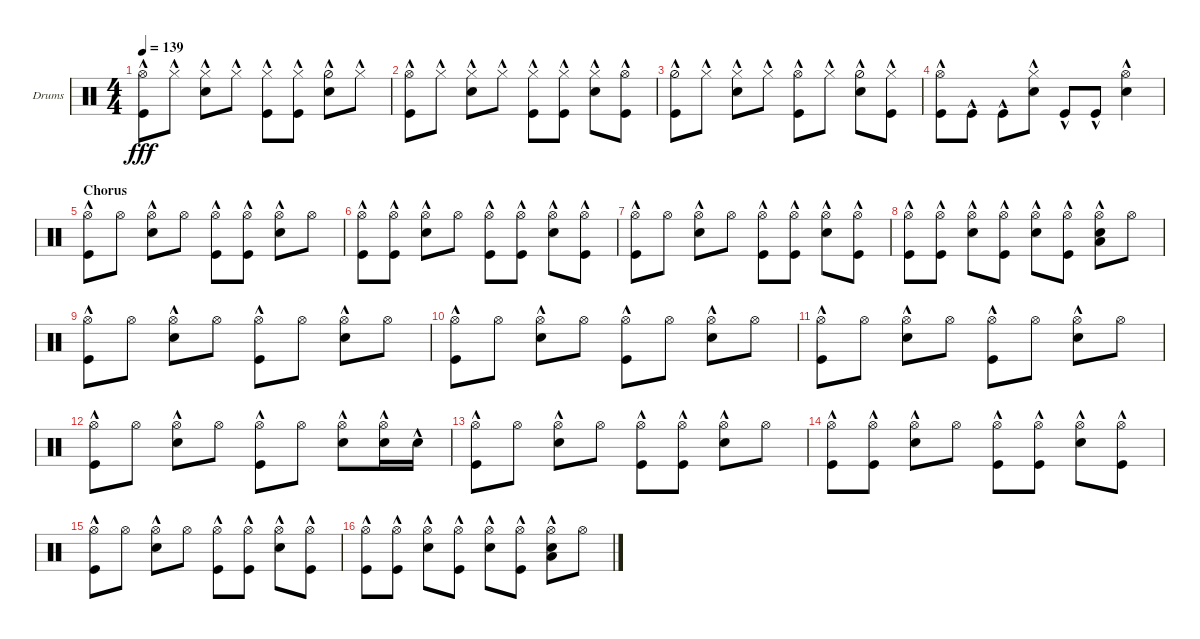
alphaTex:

\bracketExtendMode groupsimilarinstruments
\firstSystemTrackNameOrientation horizontal
\otherSystemsTrackNameOrientation horizontal
\track ("Drumkit" "Drums") {instrument percussion}
\staff {score}
\articulation defaults
\ts (4 4)
\tempo 139
\clef neutral
\ks c
("Kick (hit)"{hac} "Hi-Hat (open)"{hac}).8{dy fff} "Hi-Hat (closed)"{hac}.8 ("Hi-Hat (closed)"{hac} "Snare (hit) 2"{hac}).8 "Hi-Hat (closed)"{hac}.8 ("Hi-Hat (closed)"{hac} "Kick (hit)"{hac}).8 ("Hi-Hat (closed)"{hac} "Kick (hit)"{hac}).8 ("Hi-Hat (half)"{hac} "Snare (hit) 2"{hac}).8 "Hi-Hat (closed)"{hac}.8 |
("Kick (hit)"{hac} "Hi-Hat (open)"{hac}).8 "Hi-Hat (closed)"{hac}.8 ("Hi-Hat (closed)"{hac} "Snare (hit) 2"{hac}).8 "Hi-Hat (closed)"{hac}.8 ("Hi-Hat (closed)"{hac} "Kick (hit)"{hac}).8 ("Hi-Hat (closed)"{hac} "Kick (hit)"{hac}).8 ("Hi-Hat (closed)"{hac} "Snare (hit) 2"{hac}).8 ("Hi-Hat (open)"{hac} "Kick (hit)"{hac}).8 |
("Kick (hit)"{hac} "Hi-Hat (half)"{hac}).8 "Hi-Hat (closed)"{hac}.8 ("Hi-Hat (closed)"{hac} "Snare (hit) 2"{hac}).8 "Hi-Hat (closed)"{hac}.8 ("Hi-Hat (open)"{hac} "Kick (hit)"{hac}).8 "Hi-Hat (closed)"{hac}.8 ("Hi-Hat (half)"{hac} "Snare (hit) 2"{hac}).8 ("Hi-Hat (closed)"{hac} "Kick (hit)"{hac}).8 |
("Kick (hit)"{hac} "Hi-Hat (open)"{hac}).8 "Kick (hit)"{hac}.8 "Kick (hit)"{hac}.8 ("Snare (hit) 2"{hac} "Hi-Hat (closed)"{hac}).8 "Kick (hit)"{hac}.8 "Kick (hit)"{hac}.8 ("Hi-Hat (open)"{hac} "Snare (hit) 2"{hac}).4 |
\section ("" "Chorus")
("Hi-Hat (open)"{hac} "Kick (hit)"{hac}).8 "Hi-Hat (open)".8 ("Hi-Hat (open)"{hac} "Snare (hit) 2"{hac}).8 "Hi-Hat (open)".8 ("Hi-Hat (open)"{hac} "Kick (hit)"{hac}).8 ("Hi-Hat (open)" "Kick (hit)"{hac}).8 ("Hi-Hat (open)"{hac} "Snare (hit) 2"{hac}).8 "Hi-Hat (open)".8 |
("Hi-Hat (open)"{hac} "Kick (hit)"{hac}).8 ("Hi-Hat (open)" "Kick (hit)"{hac}).8 ("Hi-Hat (open)"{hac} "Snare (hit) 2"{hac}).8 "Hi-Hat (open)".8 ("Hi-Hat (open)"{hac} "Kick (hit)"{hac}).8 ("Hi-Hat (open)" "Kick (hit)"{hac}).8 ("Hi-Hat (open)"{hac} "Snare (hit) 2"{hac}).8 ("Hi-Hat (open)" "Kick (hit)"{hac}).8 |
("Hi-Hat (open)"{hac} "Kick (hit)"{hac}).8 "Hi-Hat (open)".8 ("Hi-Hat (open)"{hac} "Snare (hit) 2"{hac}).8 "Hi-Hat (open)".8 ("Hi-Hat (open)"{hac} "Kick (hit)"{hac}).8 ("Hi-Hat (open)" "Kick (hit)"{hac}).8 ("Hi-Hat (open)"{hac} "Snare (hit) 2"{hac}).8 ("Hi-Hat (open)" "Kick (hit)"{hac}).8 |
("Hi-Hat (open)"{hac} "Kick (hit)"{hac}).8 ("Hi-Hat (open)" "Kick (hit)"{hac}).8 ("Hi-Hat (open)"{hac} "Snare (hit) 2"{hac}).8 ("Hi-Hat (open)" "Kick (hit)"{hac}).8 ("Hi-Hat (open)"{hac} "Snare (hit) 2"{hac}).8 ("Hi-Hat (open)" "Kick (hit)"{hac}).8 ("Hi-Hat (open)"{hac} "Snare (hit) 2"{hac} "Low Tom (hit)"{hac}).8 "Hi-Hat (open)".8 |
("Hi-Hat (open)"{hac} "Kick (hit)"{hac}).8 "Hi-Hat (open)".8 ("Hi-Hat (open)"{hac} "Snare (hit) 2"{hac}).8 "Hi-Hat (open)".8 ("Hi-Hat (open)"{hac} "Kick (hit)"{hac}).8 "Hi-Hat (open)".8 ("Hi-Hat (open)"{hac} "Snare (hit) 2"{hac}).8 "Hi-Hat (open)".8 |
("Hi-Hat (open)"{hac} "Kick (hit)"{hac}).8 "Hi-Hat (open)".8 ("Hi-Hat (open)"{hac} "Snare (hit) 2"{hac}).8 "Hi-Hat (open)".8 ("Hi-Hat (open)"{hac} "Kick (hit)"{hac}).8 "Hi-Hat (open)".8 ("Hi-Hat (open)"{hac} "Snare (hit) 2"{hac}).8 "Hi-Hat (open)".8 |
("Hi-Hat (open)"{hac} "Kick (hit)"{hac}).8 "Hi-Hat (open)".8 ("Hi-Hat (open)"{hac} "Snare (hit) 2"{hac}).8 "Hi-Hat (open)".8 ("Hi-Hat (open)"{hac} "Kick (hit)"{hac}).8 "Hi-Hat (open)".8 ("Hi-Hat (open)"{hac} "Snare (hit) 2"{hac}).8 "Hi-Hat (open)".8 |
("Hi-Hat (open)"{hac} "Kick (hit)"{hac}).8 "Hi-Hat (open)".8 ("Hi-Hat (open)"{hac} "Snare (hit) 2"{hac}).8 "Hi-Hat (open)".8 ("Hi-Hat (open)"{hac} "Kick (hit)"{hac}).8 "Hi-Hat (open)".8 ("Hi-Hat (open)"{hac} "Snare (hit) 2"{hac}).8 ("Hi-Hat (open)" "Snare (hit) 2"{hac}).16 "Snare (hit) 2"{hac}.16 |
("Hi-Hat (open)"{hac} "Kick (hit)"{hac}).8 "Hi-Hat (open)".8 ("Hi-Hat (open)"{hac} "Snare (hit) 2"{hac}).8 "Hi-Hat (open)".8 ("Hi-Hat (open)"{hac} "Kick (hit)"{hac}).8 ("Hi-Hat (open)" "Kick (hit)"{hac}).8 ("Hi-Hat (open)"{hac} "Snare (hit) 2"{hac}).8 "Hi-Hat (open)".8 |
("Hi-Hat (open)"{hac} "Kick (hit)"{hac}).8 ("Hi-Hat (open)" "Kick (hit)"{hac}).8 ("Hi-Hat (open)"{hac} "Snare (hit) 2"{hac}).8 "Hi-Hat (open)".8 ("Hi-Hat (open)"{hac} "Kick (hit)"{hac}).8 ("Hi-Hat (open)" "Kick (hit)"{hac}).8 ("Hi-Hat (open)"{hac} "Snare (hit) 2"{hac}).8 ("Hi-Hat (open)" "Kick (hit)"{hac}).8 |
("Hi-Hat (open)"{hac} "Kick (hit)"{hac}).8 "Hi-Hat (open)".8 ("Hi-Hat (open)"{hac} "Snare (hit) 2"{hac}).8 "Hi-Hat (open)".8 ("Hi-Hat (open)"{hac} "Kick (hit)"{hac}).8 ("Hi-Hat (open)" "Kick (hit)"{hac}).8 ("Hi-Hat (open)"{hac} "Snare (hit) 2"{hac}).8 ("Hi-Hat (open)" "Kick (hit)"{hac}).8 |
("Hi-Hat (open)"{hac} "Kick (hit)"{hac}).8 ("Hi-Hat (open)" "Kick (hit)"{hac}).8 ("Hi-Hat (open)"{hac} "Snare (hit) 2"{hac}).8 ("Hi-Hat (open)" "Kick (hit)"{hac}).8 ("Hi-Hat (open)"{hac} "Snare (hit) 2"{hac}).8 ("Hi-Hat (open)" "Kick (hit)"{hac}).8 ("Hi-Hat (open)"{hac} "Snare (hit) 2"{hac} "Low Tom (hit)"{hac}).8 "Hi-Hat (open)".8
